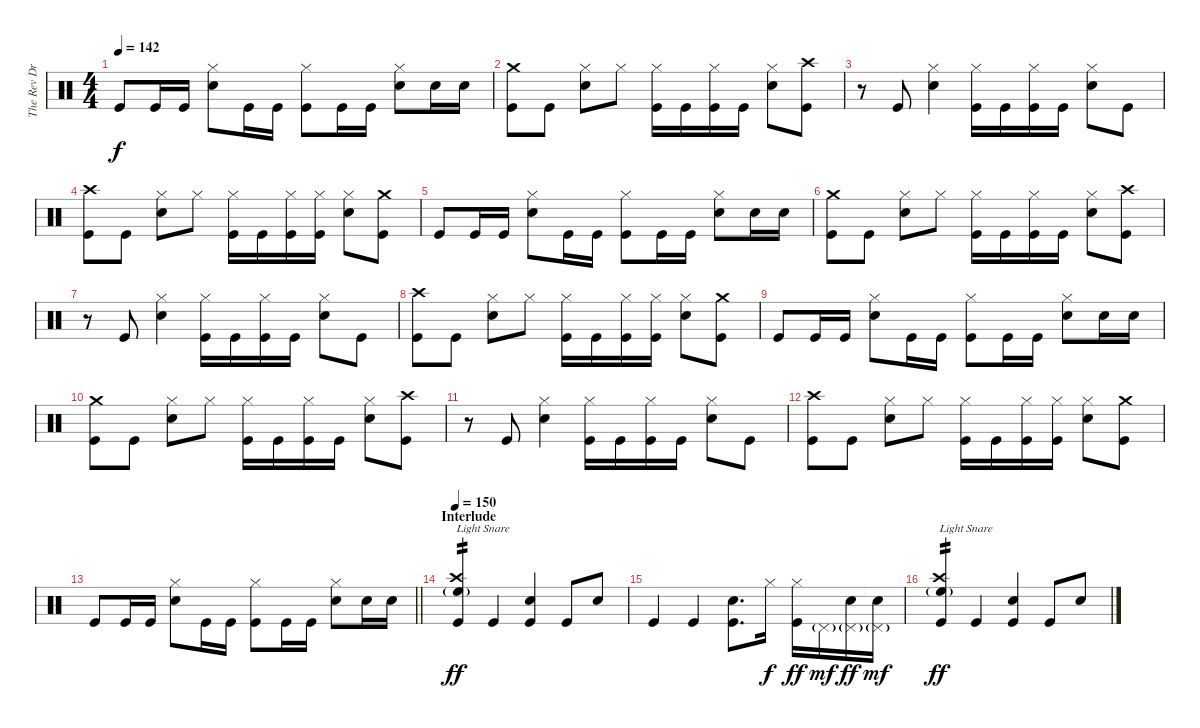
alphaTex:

\track ("The Rev Drums" "The Rev Dr") {instrument percussion}
\staff {score}
\articulation defaults
\ts (4 4)
\tempo 142
\clef neutral
\ks c "Kick (hit)".8{dy f} "Kick (hit)".16 "Kick (hit)".16
("Hi-Hat (closed)" "Electric Snare (hit)").8 "Kick (hit)".16 "Kick (hit)".16 ("Hi-Hat (closed)" "Kick (hit)").8 "Kick (hit)".16 "Kick (hit)".16 ("Hi-Hat (closed)" "Electric Snare (hit)").8 "Electric Snare (hit)".16 "Electric Snare (hit)".16 |
("Crash medium (hit)" "Kick (hit)").8 "Kick (hit)".8 ("Hi-Hat (closed)" "Electric Snare (hit)").8 "Hi-Hat (closed)".8 ("Hi-Hat (closed)" "Kick (hit)").16 "Kick (hit)".16 ("Hi-Hat (closed)" "Kick (hit)").16 "Kick (hit)".16 ("Hi-Hat (closed)" "Electric Snare (hit)").8 ("Crash high (hit)" "Kick (hit)").8 |
r.8 "Kick (hit)".8 ("Hi-Hat (closed)" "Electric Snare (hit)").4 ("Hi-Hat (closed)" "Kick (hit)").16 "Kick (hit)".16 ("Hi-Hat (closed)" "Kick (hit)").16 "Kick (hit)".16 ("Hi-Hat (closed)" "Electric Snare (hit)").8 "Kick (hit)".8 |
("Crash high (hit)" "Kick (hit)").8 "Kick (hit)".8 ("Hi-Hat (closed)" "Electric Snare (hit)").8 "Hi-Hat (closed)".8 ("Hi-Hat (closed)" "Kick (hit)").16 "Kick (hit)".16 ("Hi-Hat (closed)" "Kick (hit)").16 ("Hi-Hat (closed)" "Kick (hit)").16 ("Hi-Hat (closed)" "Electric Snare (hit)").8 ("Crash medium (hit)" "Kick (hit)").8 |
"Kick (hit)".8 "Kick (hit)".16 "Kick (hit)".16 ("Hi-Hat (closed)" "Electric Snare (hit)").8 "Kick (hit)".16 "Kick (hit)".16 ("Hi-Hat (closed)" "Kick (hit)").8 "Kick (hit)".16 "Kick (hit)".16 ("Hi-Hat (closed)" "Electric Snare (hit)").8 "Electric Snare (hit)".16 "Electric Snare (hit)".16 |
("Crash medium (hit)" "Kick (hit)").8 "Kick (hit)".8 ("Hi-Hat (closed)" "Electric Snare (hit)").8 "Hi-Hat (closed)".8 ("Hi-Hat (closed)" "Kick (hit)").16 "Kick (hit)".16 ("Hi-Hat (closed)" "Kick (hit)").16 "Kick (hit)".16 ("Hi-Hat (closed)" "Electric Snare (hit)").8 ("Crash high (hit)" "Kick (hit)").8 |
r.8 "Kick (hit)".8 ("Hi-Hat (closed)" "Electric Snare (hit)").4 ("Hi-Hat (closed)" "Kick (hit)").16 "Kick (hit)".16 ("Hi-Hat (closed)" "Kick (hit)").16 "Kick (hit)".16 ("Hi-Hat (closed)" "Electric Snare (hit)").8 "Kick (hit)".8 |
("Crash high (hit)" "Kick (hit)").8 "Kick (hit)".8 ("Hi-Hat (closed)" "Electric Snare (hit)").8 "Hi-Hat (closed)".8 ("Hi-Hat (closed)" "Kick (hit)").16 "Kick (hit)".16 ("Hi-Hat (closed)" "Kick (hit)").16 ("Hi-Hat (closed)" "Kick (hit)").16 ("Hi-Hat (closed)" "Electric Snare (hit)").8 ("Crash medium (hit)" "Kick (hit)").8 |
"Kick (hit)".8 "Kick (hit)".16 "Kick (hit)".16 ("Hi-Hat (closed)" "Electric Snare (hit)").8 "Kick (hit)".16 "Kick (hit)".16 ("Hi-Hat (closed)" "Kick (hit)").8 "Kick (hit)".16 "Kick (hit)".16 ("Hi-Hat (closed)" "Electric Snare (hit)").8 "Electric Snare (hit)".16 "Electric Snare (hit)".16 |
("Crash medium (hit)" "Kick (hit)").8 "Kick (hit)".8 ("Hi-Hat (closed)" "Electric Snare (hit)").8 "Hi-Hat (closed)".8 ("Hi-Hat (closed)" "Kick (hit)").16 "Kick (hit)".16 ("Hi-Hat (closed)" "Kick (hit)").16 "Kick (hit)".16 ("Hi-Hat (closed)" "Electric Snare (hit)").8 ("Crash high (hit)" "Kick (hit)").8 |
r.8 "Kick (hit)".8 ("Hi-Hat (closed)" "Electric Snare (hit)").4 ("Hi-Hat (closed)" "Kick (hit)").16 "Kick (hit)".16 ("Hi-Hat (closed)" "Kick (hit)").16 "Kick (hit)".16 ("Hi-Hat (closed)" "Electric Snare (hit)").8 "Kick (hit)".8 |
("Crash high (hit)" "Kick (hit)").8 "Kick (hit)".8 ("Hi-Hat (closed)" "Electric Snare (hit)").8 "Hi-Hat (closed)".8 ("Hi-Hat (closed)" "Kick (hit)").16 "Kick (hit)".16 ("Hi-Hat (closed)" "Kick (hit)").16 ("Hi-Hat (closed)" "Kick (hit)").16 ("Hi-Hat (closed)" "Electric Snare (hit)").8 ("Crash medium (hit)" "Kick (hit)").8 |
\barLineRight lightlight "Kick (hit)".8 "Kick (hit)".16 "Kick (hit)".16
("Hi-Hat (closed)" "Electric Snare (hit)").8 "Kick (hit)".16 "Kick (hit)".16 ("Hi-Hat (closed)" "Kick (hit)").8 "Kick (hit)".16 "Kick (hit)".16 ("Hi-Hat (closed)" "Electric Snare (hit)").8 "Electric Snare (hit)".16 "Electric Snare (hit)".16 |
\section ("" "Interlude")
\tempo 150
("Crash high (hit)" "High Floor Tom (hit)"{g} "Kick (hit)").4{txt "Light Snare" tp 2 dy ff} "Kick (hit)".4 ("Electric Snare (hit)" "Kick (hit)").4 "Kick (hit)".8 "Electric Snare (hit)".8 |
"Kick (hit)".4 "Kick (hit)".4 ("Electric Snare (hit)" "Kick (hit)").8{d} "Hi-Hat (closed)".16{dy f} ("Hi-Hat (closed)" "Kick (hit)").16{dy ff} "Pedal Hi-Hat (hit)"{g}.16{dy mf} ("Pedal Hi-Hat (hit)"{g} "Electric Snare (hit)").16{dy ff} ("Pedal Hi-Hat (hit)"{g} "Snare (hit)"{t}).16{dy mf} |
("Crash high (hit)" "High Floor Tom (hit)"{g} "Kick (hit)").4{txt "Light Snare" tp 2 dy ff} "Kick (hit)".4 ("Electric Snare (hit)" "Kick (hit)").4 "Kick (hit)".8 "Electric Snare (hit)".8
